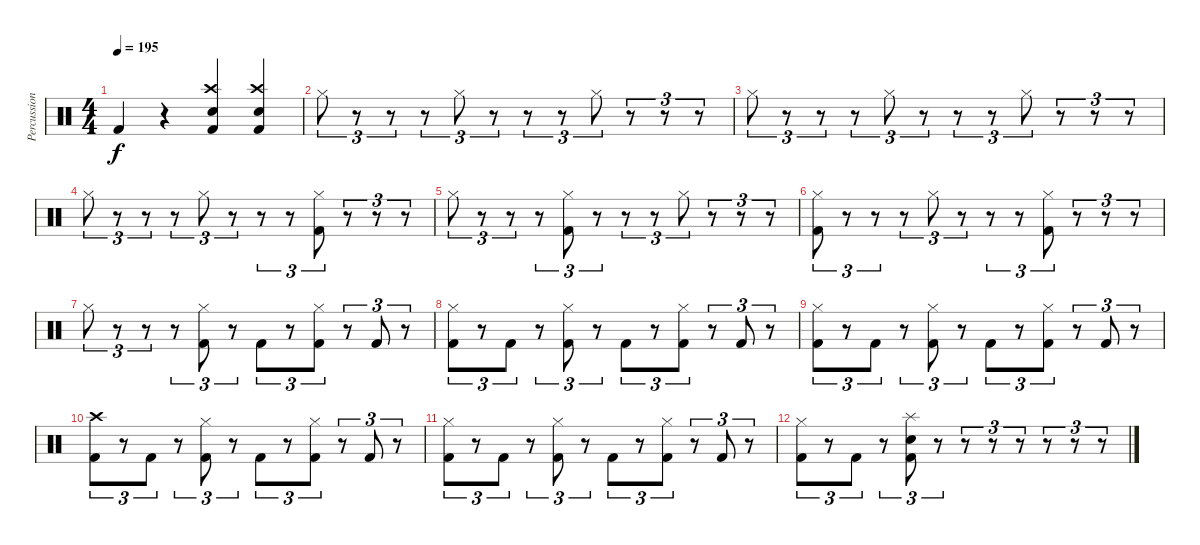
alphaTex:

\track ("Percussion" "Percussion") {instrument percussion}
\staff {score}
\articulation defaults
\ts (4 4)
\tempo 195
\clef neutral
\ks c "Kick (hit) 2".4{dy f}
r.4 ("Crash high (hit)" "Electric Snare (hit)" "Kick (hit) 2").4 ("Crash high (hit)" "Electric Snare (hit)" "Kick (hit) 2").4 |
"Hi-Hat (closed)".8{tu (3 2)} r.8{tu (3 2)} r.8{tu (3 2)} r.8{tu (3 2)} "Hi-Hat (closed)".8{tu (3 2)} r.8{tu (3 2)} r.8{tu (3 2)} r.8{tu (3 2)} "Hi-Hat (closed)".8{tu (3 2)} r.8{tu (3 2)} r.8{tu (3 2)} r.8{tu (3 2)} |
"Hi-Hat (closed)".8{tu (3 2)} r.8{tu (3 2)} r.8{tu (3 2)} r.8{tu (3 2)} "Hi-Hat (closed)".8{tu (3 2)} r.8{tu (3 2)} r.8{tu (3 2)} r.8{tu (3 2)} "Hi-Hat (closed)".8{tu (3 2)} r.8{tu (3 2)} r.8{tu (3 2)} r.8{tu (3 2)} |
"Hi-Hat (closed)".8{tu (3 2)} r.8{tu (3 2)} r.8{tu (3 2)} r.8{tu (3 2)} "Hi-Hat (closed)".8{tu (3 2)} r.8{tu (3 2)} r.8{tu (3 2)} r.8{tu (3 2)} ("Hi-Hat (closed)" "Kick (hit) 2").8{tu (3 2)} r.8{tu (3 2)} r.8{tu (3 2)} r.8{tu (3 2)} |
"Hi-Hat (closed)".8{tu (3 2)} r.8{tu (3 2)} r.8{tu (3 2)} r.8{tu (3 2)} ("Hi-Hat (closed)" "Kick (hit) 2").8{tu (3 2)} r.8{tu (3 2)} r.8{tu (3 2)} r.8{tu (3 2)} "Hi-Hat (closed)".8{tu (3 2)} r.8{tu (3 2)} r.8{tu (3 2)} r.8{tu (3 2)} |
("Hi-Hat (closed)" "Kick (hit) 2").8{tu (3 2)} r.8{tu (3 2)} r.8{tu (3 2)} r.8{tu (3 2)} "Hi-Hat (closed)".8{tu (3 2)} r.8{tu (3 2)} r.8{tu (3 2)} r.8{tu (3 2)} ("Hi-Hat (closed)" "Kick (hit) 2").8{tu (3 2)} r.8{tu (3 2)} r.8{tu (3 2)} r.8{tu (3 2)} |
"Hi-Hat (closed)".8{tu (3 2)} r.8{tu (3 2)} r.8{tu (3 2)} r.8{tu (3 2)} ("Hi-Hat (closed)" "Kick (hit) 2").8{tu (3 2)} r.8{tu (3 2)} "Kick (hit) 2".8{tu (3 2)} r.8{tu (3 2)} ("Hi-Hat (closed)" "Kick (hit) 2").8{tu (3 2)} r.8{tu (3 2)} "Kick (hit) 2".8{tu (3 2)} r.8{tu (3 2)} |
("Hi-Hat (closed)" "Kick (hit) 2").8{tu (3 2)} r.8{tu (3 2)} "Kick (hit) 2".8{tu (3 2)} r.8{tu (3 2)} ("Hi-Hat (closed)" "Kick (hit) 2").8{tu (3 2)} r.8{tu (3 2)} "Kick (hit) 2".8{tu (3 2)} r.8{tu (3 2)} ("Hi-Hat (closed)" "Kick (hit) 2").8{tu (3 2)} r.8{tu (3 2)} "Kick (hit) 2".8{tu (3 2)} r.8{tu (3 2)} |
("Hi-Hat (closed)" "Kick (hit) 2").8{tu (3 2)} r.8{tu (3 2)} "Kick (hit) 2".8{tu (3 2)} r.8{tu (3 2)} ("Hi-Hat (closed)" "Kick (hit) 2").8{tu (3 2)} r.8{tu (3 2)} "Kick (hit) 2".8{tu (3 2)} r.8{tu (3 2)} ("Hi-Hat (closed)" "Kick (hit) 2").8{tu (3 2)} r.8{tu (3 2)} "Kick (hit) 2".8{tu (3 2)} r.8{tu (3 2)} |
("Crash high (hit)" "Kick (hit) 2").8{tu (3 2)} r.8{tu (3 2)} "Kick (hit) 2".8{tu (3 2)} r.8{tu (3 2)} ("Hi-Hat (closed)" "Kick (hit) 2").8{tu (3 2)} r.8{tu (3 2)} "Kick (hit) 2".8{tu (3 2)} r.8{tu (3 2)} ("Hi-Hat (closed)" "Kick (hit) 2").8{tu (3 2)} r.8{tu (3 2)} "Kick (hit) 2".8{tu (3 2)} r.8{tu (3 2)} |
("Hi-Hat (closed)" "Kick (hit) 2").8{tu (3 2)} r.8{tu (3 2)} "Kick (hit) 2".8{tu (3 2)} r.8{tu (3 2)} ("Hi-Hat (closed)" "Kick (hit) 2").8{tu (3 2)} r.8{tu (3 2)} "Kick (hit) 2".8{tu (3 2)} r.8{tu (3 2)} ("Hi-Hat (closed)" "Kick (hit) 2").8{tu (3 2)} r.8{tu (3 2)} "Kick (hit) 2".8{tu (3 2)} r.8{tu (3 2)} |
("Hi-Hat (closed)" "Kick (hit) 2").8{tu (3 2)} r.8{tu (3 2)} "Kick (hit) 2".8{tu (3 2)} r.8{tu (3 2)} ("Splash (hit)" "Electric Snare (hit)" "Kick (hit) 2").8{tu (3 2)} r.8{tu (3 2)} r.8{tu (3 2)} r.8{tu (3 2)} r.8{tu (3 2)} r.8{tu (3 2)} r.8{tu (3 2)} r.8{tu (3 2)}
